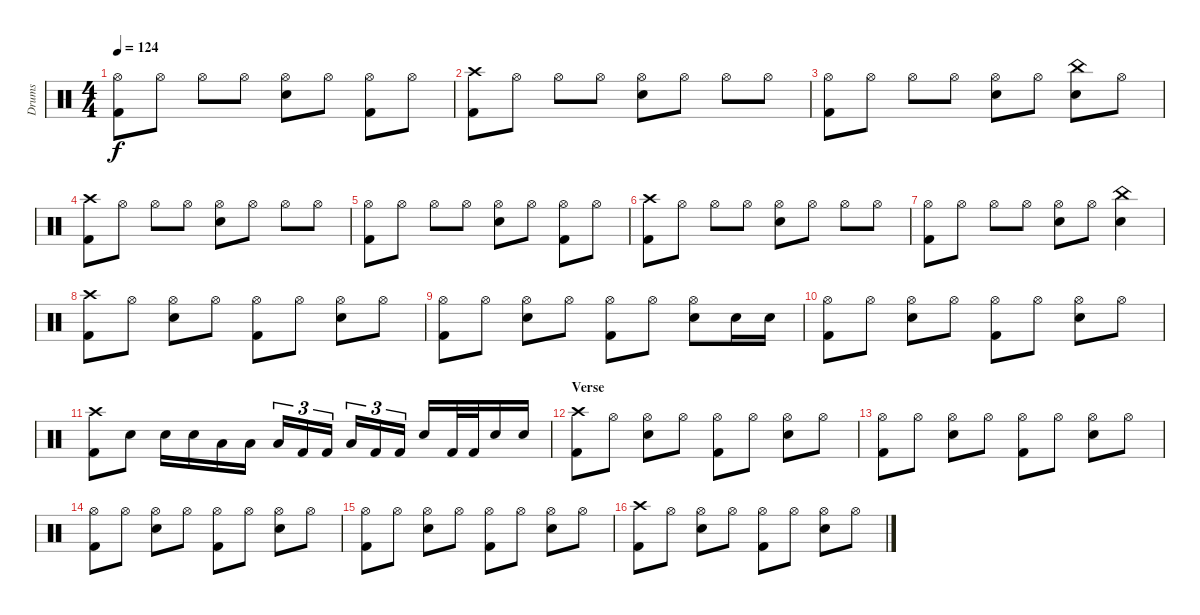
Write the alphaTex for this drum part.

\track ("Drums" "Drums") {instrument percussion}
\staff {score}
\articulation defaults
\ts (4 4)
\tempo 124
\clef neutral
\ks c
("Hi-Hat (open)" "Kick (hit) 2").8{dy f} "Hi-Hat (open)".8 "Hi-Hat (open)".8 "Hi-Hat (open)".8 ("Hi-Hat (open)" "Electric Snare (hit)").8 "Hi-Hat (open)".8 ("Hi-Hat (open)" "Kick (hit) 2").8 "Hi-Hat (open)".8 |
("Crash high (hit)" "Kick (hit) 2").8 "Hi-Hat (open)".8 "Hi-Hat (open)".8 "Hi-Hat (open)".8 ("Hi-Hat (open)" "Electric Snare (hit)").8 "Hi-Hat (open)".8 "Hi-Hat (open)".8 "Hi-Hat (open)".8 |
("Hi-Hat (open)" "Kick (hit) 2").8 "Hi-Hat (open)".8 "Hi-Hat (open)".8 "Hi-Hat (open)".8 ("Hi-Hat (open)" "Electric Snare (hit)").8 "Hi-Hat (open)".8 ("China (hit)" "Electric Snare (hit)").8 "Hi-Hat (open)".8 |
("Crash high (hit)" "Kick (hit) 2").8 "Hi-Hat (open)".8 "Hi-Hat (open)".8 "Hi-Hat (open)".8 ("Hi-Hat (open)" "Electric Snare (hit)").8 "Hi-Hat (open)".8 "Hi-Hat (open)".8 "Hi-Hat (open)".8 |
("Hi-Hat (open)" "Kick (hit) 2").8 "Hi-Hat (open)".8 "Hi-Hat (open)".8 "Hi-Hat (open)".8 ("Hi-Hat (open)" "Electric Snare (hit)").8 "Hi-Hat (open)".8 ("Hi-Hat (open)" "Kick (hit) 2").8 "Hi-Hat (open)".8 |
("Crash high (hit)" "Kick (hit) 2").8 "Hi-Hat (open)".8 "Hi-Hat (open)".8 "Hi-Hat (open)".8 ("Hi-Hat (open)" "Electric Snare (hit)").8 "Hi-Hat (open)".8 "Hi-Hat (open)".8 "Hi-Hat (open)".8 |
("Hi-Hat (open)" "Kick (hit) 2").8 "Hi-Hat (open)".8 "Hi-Hat (open)".8 "Hi-Hat (open)".8 ("Hi-Hat (open)" "Electric Snare (hit)").8 "Hi-Hat (open)".8 ("China (hit)" "Electric Snare (hit)").4 |
\section ("" "")
("Crash high (hit)" "Kick (hit) 2").8 "Hi-Hat (open)".8 ("Hi-Hat (open)" "Electric Snare (hit)").8 "Hi-Hat (open)".8 ("Hi-Hat (open)" "Kick (hit) 2").8 "Hi-Hat (open)".8 ("Hi-Hat (open)" "Electric Snare (hit)").8 "Hi-Hat (open)".8 |
("Hi-Hat (open)" "Kick (hit) 2").8 "Hi-Hat (open)".8 ("Hi-Hat (open)" "Electric Snare (hit)").8 "Hi-Hat (open)".8 ("Hi-Hat (open)" "Kick (hit) 2").8 "Hi-Hat (open)".8 ("Hi-Hat (open)" "Electric Snare (hit)").8 "Electric Snare (hit)".16 "Electric Snare (hit)".16 |
("Hi-Hat (open)" "Kick (hit) 2").8 "Hi-Hat (open)".8 ("Hi-Hat (open)" "Electric Snare (hit)").8 "Hi-Hat (open)".8 ("Hi-Hat (open)" "Kick (hit) 2").8 "Hi-Hat (open)".8 ("Hi-Hat (open)" "Electric Snare (hit)").8 "Hi-Hat (open)".8 |
("Crash high (hit)" "Kick (hit) 2").8 "Electric Snare (hit)".8 "Electric Snare (hit)".16 "Electric Snare (hit)".16 "Low Tom (hit)".16 "Low Tom (hit)".16 "Low Floor Tom (hit)".16{tu (3 2)} "Kick (hit) 2".16{tu (3 2)} "Kick (hit) 2".16{tu (3 2)} "Low Floor Tom (hit)".16{tu (3 2)} "Kick (hit) 2".16{tu (3 2)} "Kick (hit) 2".16{tu (3 2)} "Electric Snare (hit)".16 "Kick (hit) 2".32 "Kick (hit) 2".32 "Electric Snare (hit)".16 "Electric Snare (hit)".16 |
\section ("" "Verse")
("Crash high (hit)" "Kick (hit) 2").8 "Hi-Hat (open)".8 ("Hi-Hat (open)" "Electric Snare (hit)").8 "Hi-Hat (open)".8 ("Hi-Hat (open)" "Kick (hit) 2").8 "Hi-Hat (open)".8 ("Hi-Hat (open)" "Electric Snare (hit)").8 "Hi-Hat (open)".8 |
("Hi-Hat (open)" "Kick (hit) 2").8 "Hi-Hat (open)".8 ("Hi-Hat (open)" "Electric Snare (hit)").8 "Hi-Hat (open)".8 ("Hi-Hat (open)" "Kick (hit) 2").8 "Hi-Hat (open)".8 ("Hi-Hat (open)" "Electric Snare (hit)").8 "Hi-Hat (open)".8 |
("Hi-Hat (open)" "Kick (hit) 2").8 "Hi-Hat (open)".8 ("Hi-Hat (open)" "Electric Snare (hit)").8 "Hi-Hat (open)".8 ("Hi-Hat (open)" "Kick (hit) 2").8 "Hi-Hat (open)".8 ("Hi-Hat (open)" "Electric Snare (hit)").8 "Hi-Hat (open)".8 |
("Hi-Hat (open)" "Kick (hit) 2").8 "Hi-Hat (open)".8 ("Hi-Hat (open)" "Electric Snare (hit)").8 "Hi-Hat (open)".8 ("Hi-Hat (open)" "Kick (hit) 2").8 "Hi-Hat (open)".8 ("Hi-Hat (open)" "Electric Snare (hit)").8 "Hi-Hat (open)".8 |
("Crash high (hit)" "Kick (hit) 2").8 "Hi-Hat (open)".8 ("Hi-Hat (open)" "Electric Snare (hit)").8 "Hi-Hat (open)".8 ("Hi-Hat (open)" "Kick (hit) 2").8 "Hi-Hat (open)".8 ("Hi-Hat (open)" "Electric Snare (hit)").8 "Hi-Hat (open)".8
